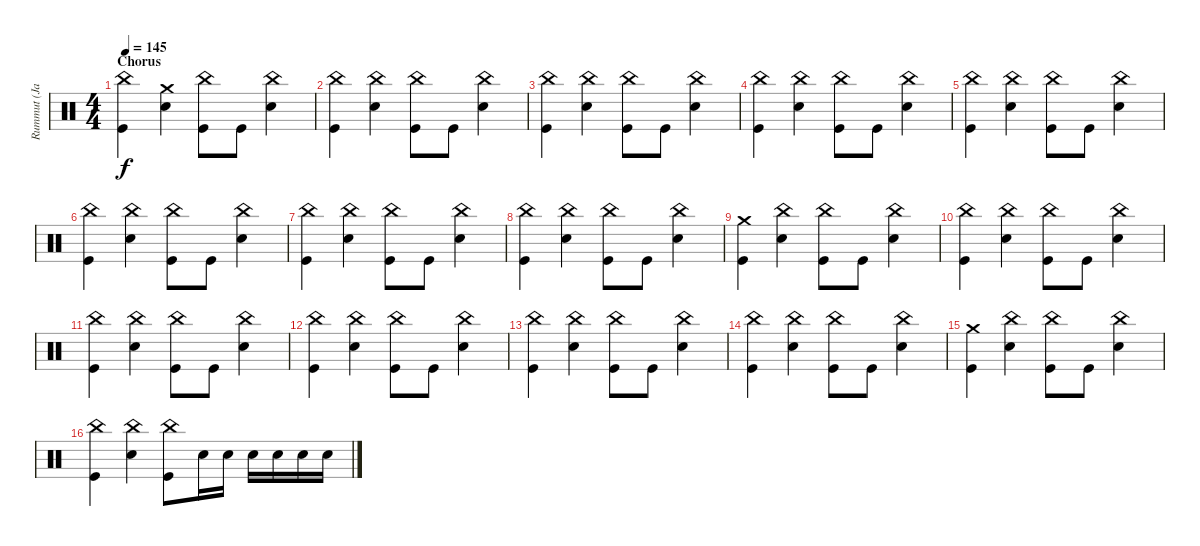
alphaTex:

\track ("Rummut (Janne)" "Rummut (Ja") {instrument percussion}
\staff {score}
\articulation defaults
\ts (4 4)
\section ("" "Chorus")
\tempo 145
\clef neutral
\ks c
("China (hit)" "Kick (hit)").4{dy f} ("Crash medium (hit)" "Snare (hit) 2").4 ("China (hit)" "Kick (hit)").8 "Kick (hit)".8 ("China (hit)" "Snare (hit) 2").4 |
("China (hit)" "Kick (hit)").4 ("China (hit)" "Snare (hit) 2").4 ("China (hit)" "Kick (hit)").8 "Kick (hit)".8 ("China (hit)" "Snare (hit) 2").4 |
("China (hit)" "Kick (hit)").4 ("China (hit)" "Snare (hit) 2").4 ("China (hit)" "Kick (hit)").8 "Kick (hit)".8 ("China (hit)" "Snare (hit) 2").4 |
("China (hit)" "Kick (hit)").4 ("China (hit)" "Snare (hit) 2").4 ("China (hit)" "Kick (hit)").8 "Kick (hit)".8 ("China (hit)" "Snare (hit) 2").4 |
("China (hit)" "Kick (hit)").4 ("China (hit)" "Snare (hit) 2").4 ("China (hit)" "Kick (hit)").8 "Kick (hit)".8 ("China (hit)" "Snare (hit) 2").4 |
("China (hit)" "Kick (hit)").4 ("China (hit)" "Snare (hit) 2").4 ("China (hit)" "Kick (hit)").8 "Kick (hit)".8 ("China (hit)" "Snare (hit) 2").4 |
("China (hit)" "Kick (hit)").4 ("China (hit)" "Snare (hit) 2").4 ("China (hit)" "Kick (hit)").8 "Kick (hit)".8 ("China (hit)" "Snare (hit) 2").4 |
("China (hit)" "Kick (hit)").4 ("China (hit)" "Snare (hit) 2").4 ("China (hit)" "Kick (hit)").8 "Kick (hit)".8 ("China (hit)" "Snare (hit) 2").4 |
("Crash medium (hit)" "Kick (hit)").4 ("China (hit)" "Snare (hit) 2").4 ("China (hit)" "Kick (hit)").8 "Kick (hit)".8 ("China (hit)" "Snare (hit) 2").4 |
("China (hit)" "Kick (hit)").4 ("China (hit)" "Snare (hit) 2").4 ("China (hit)" "Kick (hit)").8 "Kick (hit)".8 ("China (hit)" "Snare (hit) 2").4 |
("China (hit)" "Kick (hit)").4 ("China (hit)" "Snare (hit) 2").4 ("China (hit)" "Kick (hit)").8 "Kick (hit)".8 ("China (hit)" "Snare (hit) 2").4 |
("China (hit)" "Kick (hit)").4 ("China (hit)" "Snare (hit) 2").4 ("China (hit)" "Kick (hit)").8 "Kick (hit)".8 ("China (hit)" "Snare (hit) 2").4 |
("China (hit)" "Kick (hit)").4 ("China (hit)" "Snare (hit) 2").4 ("China (hit)" "Kick (hit)").8 "Kick (hit)".8 ("China (hit)" "Snare (hit) 2").4 |
("China (hit)" "Kick (hit)").4 ("China (hit)" "Snare (hit) 2").4 ("China (hit)" "Kick (hit)").8 "Kick (hit)".8 ("China (hit)" "Snare (hit) 2").4 |
("Crash medium (hit)" "Kick (hit)").4 ("China (hit)" "Snare (hit) 2").4 ("China (hit)" "Kick (hit)").8 "Kick (hit)".8 ("China (hit)" "Snare (hit) 2").4 |
("China (hit)" "Kick (hit)").4 ("China (hit)" "Snare (hit) 2").4 ("China (hit)" "Kick (hit)").8 "Snare (hit) 2".16 "Snare (hit) 2".16 "Snare (hit) 2".16 "Snare (hit) 2".16 "Snare (hit) 2".16 "Snare (hit) 2".16
